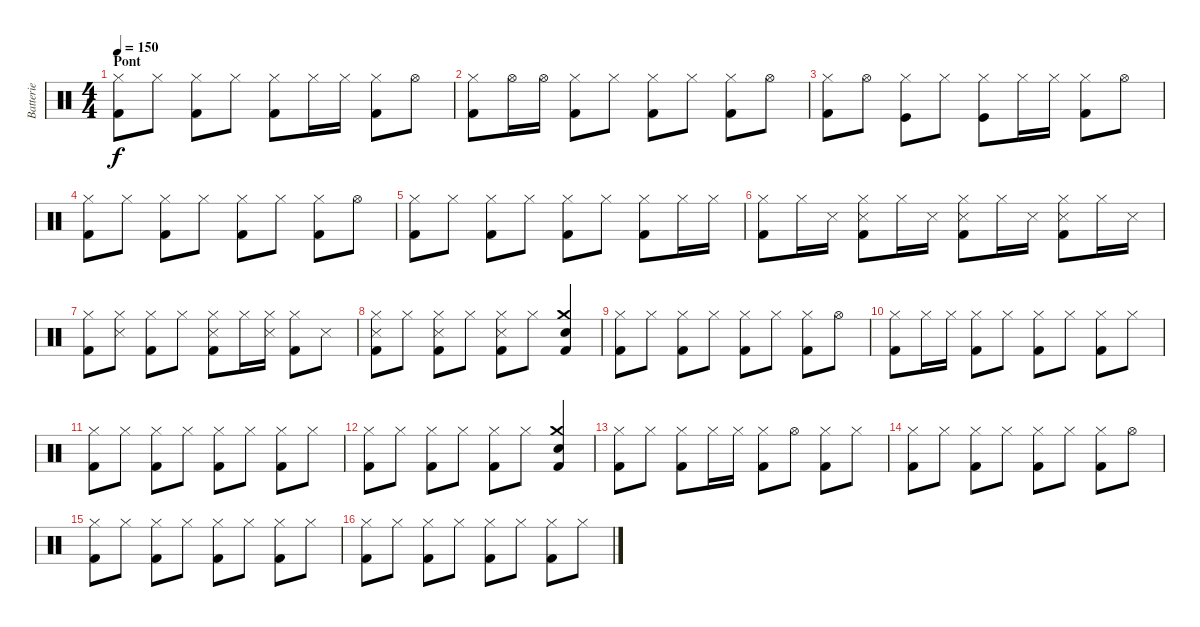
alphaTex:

\track ("Batterie" "Batterie") {instrument percussion}
\staff {score}
\articulation defaults
\ts (4 4)
\section ("" "Pont")
\tempo 150
\clef neutral
\ks c
("Hi-Hat (closed)" "Kick (hit) 2").8{dy f} "Hi-Hat (closed)".8 ("Hi-Hat (closed)" "Kick (hit) 2").8 "Hi-Hat (closed)".8 ("Hi-Hat (closed)" "Kick (hit) 2").8 "Hi-Hat (closed)".16 "Hi-Hat (closed)".16 ("Hi-Hat (closed)" "Kick (hit) 2").8 "Hi-Hat (open)".8 |
("Hi-Hat (closed)" "Kick (hit) 2").8 "Hi-Hat (open)".16 "Hi-Hat (open)".16 ("Hi-Hat (closed)" "Kick (hit) 2").8 "Hi-Hat (closed)".8 ("Hi-Hat (closed)" "Kick (hit) 2").8 "Hi-Hat (closed)".8 ("Hi-Hat (closed)" "Kick (hit) 2").8 "Hi-Hat (open)".8 |
("Hi-Hat (closed)" "Kick (hit) 2").8 "Hi-Hat (open)".8 ("Hi-Hat (closed)" "Kick (hit)").8 "Hi-Hat (closed)".8 ("Hi-Hat (closed)" "Kick (hit)").8 "Hi-Hat (closed)".16 "Hi-Hat (closed)".16 ("Hi-Hat (closed)" "Kick (hit) 2").8 "Hi-Hat (open)".8 |
("Hi-Hat (closed)" "Kick (hit) 2").8 "Hi-Hat (closed)".8 ("Hi-Hat (closed)" "Kick (hit) 2").8 "Hi-Hat (closed)".8 ("Hi-Hat (closed)" "Kick (hit) 2").8 "Hi-Hat (closed)".8 ("Hi-Hat (closed)" "Kick (hit) 2").8 "Hi-Hat (open)".8 |
("Hi-Hat (closed)" "Kick (hit) 2").8 "Hi-Hat (closed)".8 ("Hi-Hat (closed)" "Kick (hit) 2").8 "Hi-Hat (closed)".8 ("Hi-Hat (closed)" "Kick (hit) 2").8 "Hi-Hat (closed)".8 ("Hi-Hat (closed)" "Kick (hit) 2").8 "Hi-Hat (closed)".16 "Hi-Hat (closed)".16 |
("Hi-Hat (closed)" "Kick (hit) 2").8 "Hi-Hat (closed)".16 "Snare (side stick) 3".16 ("Hi-Hat (closed)" "Kick (hit) 2" "Snare (side stick) 3").8 "Hi-Hat (closed)".16 "Snare (side stick) 3".16 ("Hi-Hat (closed)" "Kick (hit) 2" "Snare (side stick) 3").8 "Hi-Hat (closed)".16 "Snare (side stick) 3".16 ("Hi-Hat (closed)" "Kick (hit) 2" "Snare (side stick) 3").8 "Hi-Hat (closed)".16 "Snare (side stick) 3".16 |
("Hi-Hat (closed)" "Kick (hit) 2").8 ("Hi-Hat (closed)" "Snare (side stick) 3").8 ("Hi-Hat (closed)" "Kick (hit) 2").8 "Hi-Hat (closed)".8 ("Hi-Hat (closed)" "Kick (hit) 2" "Snare (side stick) 3").8 "Hi-Hat (closed)".16 ("Hi-Hat (closed)" "Snare (side stick) 3").16 ("Hi-Hat (closed)" "Kick (hit) 2").8 "Snare (side stick) 3".8 |
("Hi-Hat (closed)" "Kick (hit) 2" "Snare (side stick) 3").8 "Hi-Hat (closed)".8 ("Hi-Hat (closed)" "Kick (hit) 2" "Snare (side stick) 3").8 "Hi-Hat (closed)".8 ("Hi-Hat (closed)" "Kick (hit) 2" "Snare (side stick) 3").8 "Hi-Hat (closed)".8 ("Crash medium (hit)" "Kick (hit) 2" "Electric Snare (hit)").4 |
("Hi-Hat (closed)" "Kick (hit) 2").8 "Hi-Hat (closed)".8 ("Hi-Hat (closed)" "Kick (hit) 2").8 "Hi-Hat (closed)".8 ("Hi-Hat (closed)" "Kick (hit) 2").8 "Hi-Hat (closed)".8 ("Hi-Hat (closed)" "Kick (hit) 2").8 "Hi-Hat (open)".8 |
("Hi-Hat (closed)" "Kick (hit) 2").8 "Hi-Hat (closed)".16 "Hi-Hat (closed)".16 ("Hi-Hat (closed)" "Kick (hit) 2").8 "Hi-Hat (closed)".8 ("Hi-Hat (closed)" "Kick (hit) 2").8 "Hi-Hat (closed)".8 ("Hi-Hat (closed)" "Kick (hit) 2").8 "Hi-Hat (closed)".8 |
("Hi-Hat (closed)" "Kick (hit) 2").8 "Hi-Hat (closed)".8 ("Hi-Hat (closed)" "Kick (hit) 2").8 "Hi-Hat (closed)".8 ("Hi-Hat (closed)" "Kick (hit) 2").8 "Hi-Hat (closed)".8 ("Hi-Hat (closed)" "Kick (hit) 2").8 "Hi-Hat (closed)".8 |
("Hi-Hat (closed)" "Kick (hit) 2").8 "Hi-Hat (closed)".8 ("Hi-Hat (closed)" "Kick (hit) 2").8 "Hi-Hat (closed)".8 ("Hi-Hat (closed)" "Kick (hit) 2").8 "Hi-Hat (closed)".8 ("Crash medium (hit)" "Kick (hit) 2" "Electric Snare (hit)").4 |
("Hi-Hat (closed)" "Kick (hit) 2").8 "Hi-Hat (closed)".8 ("Hi-Hat (closed)" "Kick (hit) 2").8 "Hi-Hat (closed)".16 "Hi-Hat (closed)".16 ("Hi-Hat (closed)" "Kick (hit) 2").8 "Hi-Hat (open)".8 ("Hi-Hat (closed)" "Kick (hit) 2").8 "Hi-Hat (closed)".8 |
("Hi-Hat (closed)" "Kick (hit) 2").8 "Hi-Hat (closed)".8 ("Hi-Hat (closed)" "Kick (hit) 2").8 "Hi-Hat (closed)".8 ("Hi-Hat (closed)" "Kick (hit) 2").8 "Hi-Hat (closed)".8 ("Hi-Hat (closed)" "Kick (hit) 2").8 "Hi-Hat (open)".8 |
("Hi-Hat (closed)" "Kick (hit) 2").8 "Hi-Hat (closed)".8 ("Hi-Hat (closed)" "Kick (hit) 2").8 "Hi-Hat (closed)".8 ("Hi-Hat (closed)" "Kick (hit) 2").8 "Hi-Hat (closed)".8 ("Hi-Hat (closed)" "Kick (hit) 2").8 "Hi-Hat (closed)".8 |
("Hi-Hat (closed)" "Kick (hit) 2").8 "Hi-Hat (closed)".8 ("Hi-Hat (closed)" "Kick (hit) 2").8 "Hi-Hat (closed)".8 ("Hi-Hat (closed)" "Kick (hit) 2").8 "Hi-Hat (closed)".8 ("Hi-Hat (closed)" "Kick (hit) 2").8 "Hi-Hat (closed)".8
